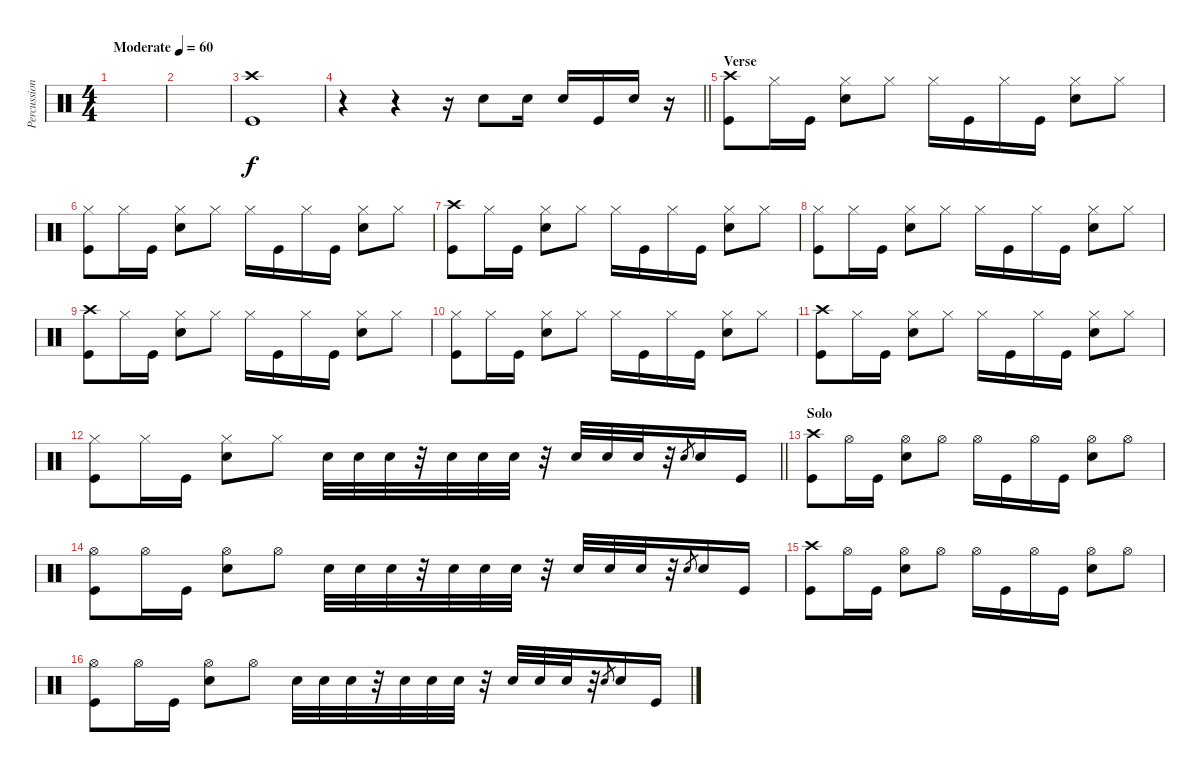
\track ("Percussion" "Percussion") {instrument percussion}
\staff {score}
\articulation defaults
\ts (4 4)
\tempo (60 "Moderate")
\tempo 65
\tempo (60 "Moderate")
\clef neutral
\ks c
|
|
("Crash high (hit)" "Kick (hit)").1 |
\barLineRight lightlight
r.4 r.4 r.16 "Snare (hit) 2".8 "Snare (hit) 2".16 "Snare (hit) 2".16 "Kick (hit)".16 "Snare (hit) 2".16 r.16 |
\section ("" "Verse")
("Crash high (hit)" "Kick (hit)").8 "Hi-Hat (closed)".16 "Kick (hit)".16 ("Hi-Hat (closed)" "Snare (hit) 2").8 "Hi-Hat (closed)".8 "Hi-Hat (closed)".16 "Kick (hit)".16 "Hi-Hat (closed)".16 "Kick (hit)".16 ("Hi-Hat (closed)" "Snare (hit) 2").8 "Hi-Hat (closed)".8 |
("Hi-Hat (closed)" "Kick (hit)").8 "Hi-Hat (closed)".16 "Kick (hit)".16 ("Hi-Hat (closed)" "Snare (hit) 2").8 "Hi-Hat (closed)".8 "Hi-Hat (closed)".16 "Kick (hit)".16 "Hi-Hat (closed)".16 "Kick (hit)".16 ("Hi-Hat (closed)" "Snare (hit) 2").8 "Hi-Hat (closed)".8 |
("Crash high (hit)" "Kick (hit)").8 "Hi-Hat (closed)".16 "Kick (hit)".16 ("Hi-Hat (closed)" "Snare (hit) 2").8 "Hi-Hat (closed)".8 "Hi-Hat (closed)".16 "Kick (hit)".16 "Hi-Hat (closed)".16 "Kick (hit)".16 ("Hi-Hat (closed)" "Snare (hit) 2").8 "Hi-Hat (closed)".8 |
("Hi-Hat (closed)" "Kick (hit)").8 "Hi-Hat (closed)".16 "Kick (hit)".16 ("Hi-Hat (closed)" "Snare (hit) 2").8 "Hi-Hat (closed)".8 "Hi-Hat (closed)".16 "Kick (hit)".16 "Hi-Hat (closed)".16 "Kick (hit)".16 ("Hi-Hat (closed)" "Snare (hit) 2").8 "Hi-Hat (closed)".8 |
("Crash high (hit)" "Kick (hit)").8 "Hi-Hat (closed)".16 "Kick (hit)".16 ("Hi-Hat (closed)" "Snare (hit) 2").8 "Hi-Hat (closed)".8 "Hi-Hat (closed)".16 "Kick (hit)".16 "Hi-Hat (closed)".16 "Kick (hit)".16 ("Hi-Hat (closed)" "Snare (hit) 2").8 "Hi-Hat (closed)".8 |
("Hi-Hat (closed)" "Kick (hit)").8 "Hi-Hat (closed)".16 "Kick (hit)".16 ("Hi-Hat (closed)" "Snare (hit) 2").8 "Hi-Hat (closed)".8 "Hi-Hat (closed)".16 "Kick (hit)".16 "Hi-Hat (closed)".16 "Kick (hit)".16 ("Hi-Hat (closed)" "Snare (hit) 2").8 "Hi-Hat (closed)".8 |
("Crash high (hit)" "Kick (hit)").8 "Hi-Hat (closed)".16 "Kick (hit)".16 ("Hi-Hat (closed)" "Snare (hit) 2").8 "Hi-Hat (closed)".8 "Hi-Hat (closed)".16 "Kick (hit)".16 "Hi-Hat (closed)".16 "Kick (hit)".16 ("Hi-Hat (closed)" "Snare (hit) 2").8 "Hi-Hat (closed)".8 |
\barLineRight lightlight
("Hi-Hat (closed)" "Kick (hit)").8 "Hi-Hat (closed)".16 "Kick (hit)".16 ("Hi-Hat (closed)" "Snare (hit) 2").8 "Hi-Hat (closed)".8 "Snare (hit) 2".32 "Snare (hit) 2".32 "Snare (hit) 2".32 r.32 "Snare (hit) 2".32 "Snare (hit) 2".32 "Snare (hit) 2".32 r.32 "Snare (hit) 2".32 "Snare (hit) 2".32 "Snare (hit) 2".32 r.32 "Snare (hit) 2".8{gr} "Snare (hit) 2".16 "Kick (hit)".16 |
\section ("" "Solo")
("Crash high (hit)" "Kick (hit)").8 "Hi-Hat (open)".16 "Kick (hit)".16 ("Hi-Hat (open)" "Snare (hit) 2").8 "Hi-Hat (open)".8 "Hi-Hat (open)".16 "Kick (hit)".16 "Hi-Hat (open)".16 "Kick (hit)".16 ("Hi-Hat (open)" "Snare (hit) 2").8 "Hi-Hat (open)".8 |
("Hi-Hat (open)" "Kick (hit)").8 "Hi-Hat (open)".16 "Kick (hit)".16 ("Hi-Hat (open)" "Snare (hit) 2").8 "Hi-Hat (open)".8 "Snare (hit) 2".32 "Snare (hit) 2".32 "Snare (hit) 2".32 r.32 "Snare (hit) 2".32 "Snare (hit) 2".32 "Snare (hit) 2".32 r.32 "Snare (hit) 2".32 "Snare (hit) 2".32 "Snare (hit) 2".32 r.32 "Snare (hit) 2".8{gr} "Snare (hit) 2".16 "Kick (hit)".16 |
("Crash high (hit)" "Kick (hit)").8 "Hi-Hat (open)".16 "Kick (hit)".16 ("Hi-Hat (open)" "Snare (hit) 2").8 "Hi-Hat (open)".8 "Hi-Hat (open)".16 "Kick (hit)".16 "Hi-Hat (open)".16 "Kick (hit)".16 ("Hi-Hat (open)" "Snare (hit) 2").8 "Hi-Hat (open)".8 |
("Hi-Hat (open)" "Kick (hit)").8 "Hi-Hat (open)".16 "Kick (hit)".16 ("Hi-Hat (open)" "Snare (hit) 2").8 "Hi-Hat (open)".8 "Snare (hit) 2".32 "Snare (hit) 2".32 "Snare (hit) 2".32 r.32 "Snare (hit) 2".32 "Snare (hit) 2".32 "Snare (hit) 2".32 r.32 "Snare (hit) 2".32 "Snare (hit) 2".32 "Snare (hit) 2".32 r.32 "Snare (hit) 2".8{gr} "Snare (hit) 2".16 "Kick (hit)".16
